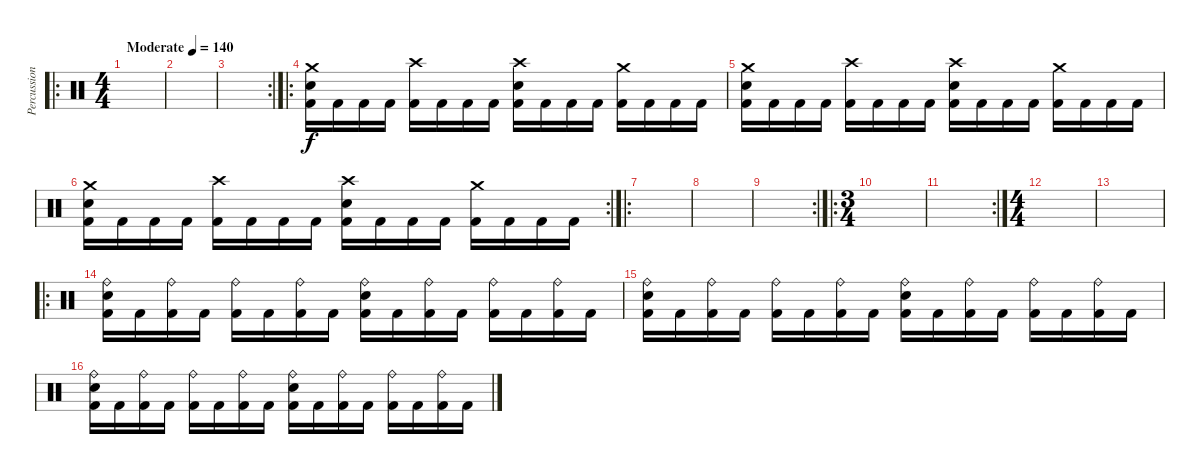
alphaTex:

\track ("Percussion" "Percussion") {instrument percussion}
\staff {score}
\articulation defaults
\ro
\ts (4 4)
\tempo (140 "Moderate")
\clef neutral
\ks c
|
|
\rc 2
|
\ro
("Crash medium (hit)" "Snare (hit) 2" "Kick (hit) 2").16 "Kick (hit) 2".16 "Kick (hit) 2".16 "Kick (hit) 2".16 ("Crash high (hit)" "Kick (hit) 2").16 "Kick (hit) 2".16 "Kick (hit) 2".16 "Kick (hit) 2".16 ("Crash high (hit)" "Snare (hit) 2" "Kick (hit) 2").16 "Kick (hit) 2".16 "Kick (hit) 2".16 "Kick (hit) 2".16 ("Crash medium (hit)" "Kick (hit) 2").16 "Kick (hit) 2".16 "Kick (hit) 2".16 "Kick (hit) 2".16 |
("Crash medium (hit)" "Snare (hit) 2" "Kick (hit) 2").16 "Kick (hit) 2".16 "Kick (hit) 2".16 "Kick (hit) 2".16 ("Crash high (hit)" "Kick (hit) 2").16 "Kick (hit) 2".16 "Kick (hit) 2".16 "Kick (hit) 2".16 ("Crash high (hit)" "Snare (hit) 2" "Kick (hit) 2").16 "Kick (hit) 2".16 "Kick (hit) 2".16 "Kick (hit) 2".16 ("Crash medium (hit)" "Kick (hit) 2").16 "Kick (hit) 2".16 "Kick (hit) 2".16 "Kick (hit) 2".16 |
\rc 2
("Crash medium (hit)" "Snare (hit) 2" "Kick (hit) 2").16 "Kick (hit) 2".16 "Kick (hit) 2".16 "Kick (hit) 2".16 ("Crash high (hit)" "Kick (hit) 2").16 "Kick (hit) 2".16 "Kick (hit) 2".16 "Kick (hit) 2".16 ("Crash high (hit)" "Snare (hit) 2" "Kick (hit) 2").16 "Kick (hit) 2".16 "Kick (hit) 2".16 "Kick (hit) 2".16 ("Crash medium (hit)" "Kick (hit) 2").16 "Kick (hit) 2".16 "Kick (hit) 2".16 "Kick (hit) 2".16 |
\ro
|
|
\rc 2
|
\ro
\ts (3 4)
|
\rc 2
|
\ts (4 4)
|
|
\ro
("Ride (bell)" "Snare (hit) 2" "Kick (hit) 2").16 "Kick (hit) 2".16 ("Ride (bell)" "Kick (hit) 2").16 "Kick (hit) 2".16 ("Ride (bell)" "Kick (hit) 2").16 "Kick (hit) 2".16 ("Ride (bell)" "Kick (hit) 2").16 "Kick (hit) 2".16 ("Ride (bell)" "Snare (hit) 2" "Kick (hit) 2").16 "Kick (hit) 2".16 ("Ride (bell)" "Kick (hit) 2").16 "Kick (hit) 2".16 ("Ride (bell)" "Kick (hit) 2").16 "Kick (hit) 2".16 ("Ride (bell)" "Kick (hit) 2").16 "Kick (hit) 2".16 |
("Ride (bell)" "Snare (hit) 2" "Kick (hit) 2").16 "Kick (hit) 2".16 ("Ride (bell)" "Kick (hit) 2").16 "Kick (hit) 2".16 ("Ride (bell)" "Kick (hit) 2").16 "Kick (hit) 2".16 ("Ride (bell)" "Kick (hit) 2").16 "Kick (hit) 2".16 ("Ride (bell)" "Snare (hit) 2" "Kick (hit) 2").16 "Kick (hit) 2".16 ("Ride (bell)" "Kick (hit) 2").16 "Kick (hit) 2".16 ("Ride (bell)" "Kick (hit) 2").16 "Kick (hit) 2".16 ("Ride (bell)" "Kick (hit) 2").16 "Kick (hit) 2".16 |
("Ride (bell)" "Snare (hit) 2" "Kick (hit) 2").16 "Kick (hit) 2".16 ("Ride (bell)" "Kick (hit) 2").16 "Kick (hit) 2".16 ("Ride (bell)" "Kick (hit) 2").16 "Kick (hit) 2".16 ("Ride (bell)" "Kick (hit) 2").16 "Kick (hit) 2".16 ("Ride (bell)" "Snare (hit) 2" "Kick (hit) 2").16 "Kick (hit) 2".16 ("Ride (bell)" "Kick (hit) 2").16 "Kick (hit) 2".16 ("Ride (bell)" "Kick (hit) 2").16 "Kick (hit) 2".16 ("Ride (bell)" "Kick (hit) 2").16 "Kick (hit) 2".16
